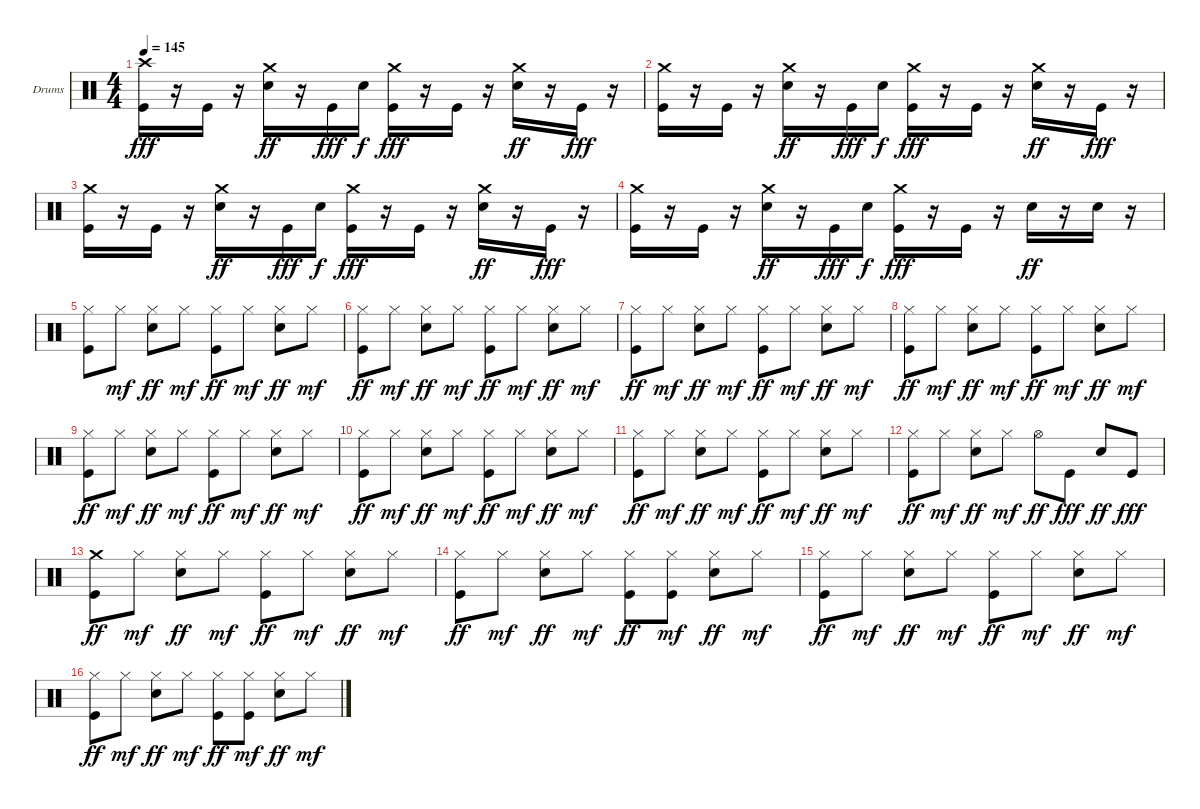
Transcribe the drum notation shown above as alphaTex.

\defaultSystemsLayout 4
\bracketExtendMode groupsimilarinstruments
\firstSystemTrackNameOrientation horizontal
\otherSystemsTrackNameOrientation horizontal
\track ("Drumkit" "Drums") {instrument percussion}
\staff {score}
\articulation defaults
\ts (4 4)
\tempo 145
\clef neutral
\scale
0.333333
\ks c
("Kick (hit)" "Crash high (hit)").16{dy fff} r.16 "Kick (hit)".16 r.16 ("Snare (hit) 2" "Crash medium (hit)").16{dy ff} r.16 "Kick (hit)".16{dy fff} "Snare (hit) 2".16{dy f} ("Kick (hit)" "Crash medium (hit)").16{dy fff} r.16 "Kick (hit)".16 r.16 ("Snare (hit) 2" "Crash medium (hit)").16{dy ff} r.16 "Kick (hit)".16{dy fff} r.16 |
\scale
0.333333 ("Kick (hit)" "Crash medium (hit)").16 r.16 "Kick (hit)".16 r.16 ("Snare (hit) 2" "Crash medium (hit)").16{dy ff} r.16 "Kick (hit)".16{dy fff} "Snare (hit) 2".16{dy f} ("Kick (hit)" "Crash medium (hit)").16{dy fff} r.16 "Kick (hit)".16 r.16 ("Snare (hit) 2" "Crash medium (hit)").16{dy ff} r.16 "Kick (hit)".16{dy fff} r.16 |
\scale
0.333333 ("Kick (hit)" "Crash medium (hit)").16 r.16 "Kick (hit)".16 r.16 ("Snare (hit) 2" "Crash medium (hit)").16{dy ff} r.16 "Kick (hit)".16{dy fff} "Snare (hit) 2".16{dy f} ("Kick (hit)" "Crash medium (hit)").16{dy fff} r.16 "Kick (hit)".16 r.16 ("Snare (hit) 2" "Crash medium (hit)").16{dy ff} r.16 "Kick (hit)".16{dy fff} r.16 |
\scale
0.333333 ("Kick (hit)" "Crash medium (hit)").16 r.16 "Kick (hit)".16 r.16 ("Snare (hit) 2" "Crash medium (hit)").16{dy ff} r.16 "Kick (hit)".16{dy fff} "Snare (hit) 2".16{dy f} ("Kick (hit)" "Crash medium (hit)").16{dy fff} r.16 "Kick (hit)".16 r.16 "Snare (hit) 2".16{dy ff} r.16 "Snare (hit) 2".16 r.16 |
\scale
0.333333 ("Hi-Hat (closed)" "Kick (hit)").8 "Hi-Hat (closed)".8{dy mf} ("Hi-Hat (closed)" "Snare (hit) 2").8{dy ff} "Hi-Hat (closed)".8{dy mf} ("Hi-Hat (closed)" "Kick (hit)").8{dy ff} "Hi-Hat (closed)".8{dy mf} ("Hi-Hat (closed)" "Snare (hit) 2").8{dy ff} "Hi-Hat (closed)".8{dy mf} |
\scale
0.333333 ("Hi-Hat (closed)" "Kick (hit)").8{dy ff} "Hi-Hat (closed)".8{dy mf} ("Hi-Hat (closed)" "Snare (hit) 2").8{dy ff} "Hi-Hat (closed)".8{dy mf} ("Hi-Hat (closed)" "Kick (hit)").8{dy ff} "Hi-Hat (closed)".8{dy mf} ("Hi-Hat (closed)" "Snare (hit) 2").8{dy ff} "Hi-Hat (closed)".8{dy mf} |
\scale
0.333333 ("Hi-Hat (closed)" "Kick (hit)").8{dy ff} "Hi-Hat (closed)".8{dy mf} ("Hi-Hat (closed)" "Snare (hit) 2").8{dy ff} "Hi-Hat (closed)".8{dy mf} ("Hi-Hat (closed)" "Kick (hit)").8{dy ff} "Hi-Hat (closed)".8{dy mf} ("Hi-Hat (closed)" "Snare (hit) 2").8{dy ff} "Hi-Hat (closed)".8{dy mf} |
\scale
0.333333 ("Hi-Hat (closed)" "Kick (hit)").8{dy ff} "Hi-Hat (closed)".8{dy mf} ("Hi-Hat (closed)" "Snare (hit) 2").8{dy ff} "Hi-Hat (closed)".8{dy mf} ("Hi-Hat (closed)" "Kick (hit)").8{dy ff} "Hi-Hat (closed)".8{dy mf} ("Hi-Hat (closed)" "Snare (hit) 2").8{dy ff} "Hi-Hat (closed)".8{dy mf} |
\scale
0.333333 ("Hi-Hat (closed)" "Kick (hit)").8{dy ff} "Hi-Hat (closed)".8{dy mf} ("Hi-Hat (closed)" "Snare (hit) 2").8{dy ff} "Hi-Hat (closed)".8{dy mf} ("Hi-Hat (closed)" "Kick (hit)").8{dy ff} "Hi-Hat (closed)".8{dy mf} ("Hi-Hat (closed)" "Snare (hit) 2").8{dy ff} "Hi-Hat (closed)".8{dy mf} |
\scale
0.333333 ("Hi-Hat (closed)" "Kick (hit)").8{dy ff} "Hi-Hat (closed)".8{dy mf} ("Hi-Hat (closed)" "Snare (hit) 2").8{dy ff} "Hi-Hat (closed)".8{dy mf} ("Hi-Hat (closed)" "Kick (hit)").8{dy ff} "Hi-Hat (closed)".8{dy mf} ("Hi-Hat (closed)" "Snare (hit) 2").8{dy ff} "Hi-Hat (closed)".8{dy mf} |
\scale
0.333333 ("Hi-Hat (closed)" "Kick (hit)").8{dy ff} "Hi-Hat (closed)".8{dy mf} ("Hi-Hat (closed)" "Snare (hit) 2").8{dy ff} "Hi-Hat (closed)".8{dy mf} ("Hi-Hat (closed)" "Kick (hit)").8{dy ff} "Hi-Hat (closed)".8{dy mf} ("Hi-Hat (closed)" "Snare (hit) 2").8{dy ff} "Hi-Hat (closed)".8{dy mf} |
\scale
0.333333 ("Hi-Hat (closed)" "Kick (hit)").8{dy ff} "Hi-Hat (closed)".8{dy mf} ("Hi-Hat (closed)" "Snare (hit) 2").8{dy ff} "Hi-Hat (closed)".8{dy mf} "Hi-Hat (open)".8{dy ff} "Kick (hit)".8{dy fff} "Snare (hit) 2".8{dy ff} "Kick (hit)".8{dy fff} |
\scale
0.333333 ("Crash medium (hit)" "Kick (hit)").8{dy ff} "Hi-Hat (closed)".8{dy mf} ("Hi-Hat (closed)" "Snare (hit) 2").8{dy ff} "Hi-Hat (closed)".8{dy mf} ("Hi-Hat (closed)" "Kick (hit)").8{dy ff} "Hi-Hat (closed)".8{dy mf} ("Hi-Hat (closed)" "Snare (hit) 2").8{dy ff} "Hi-Hat (closed)".8{dy mf} |
\scale
0.333333 ("Hi-Hat (closed)" "Kick (hit)").8{dy ff} "Hi-Hat (closed)".8{dy mf} ("Hi-Hat (closed)" "Snare (hit) 2").8{dy ff} "Hi-Hat (closed)".8{dy mf} ("Hi-Hat (closed)" "Kick (hit)").8{dy ff} ("Hi-Hat (closed)" "Kick (hit)").8{dy mf} ("Hi-Hat (closed)" "Snare (hit) 2").8{dy ff} "Hi-Hat (closed)".8{dy mf} |
\scale
0.333333 ("Hi-Hat (closed)" "Kick (hit)").8{dy ff} "Hi-Hat (closed)".8{dy mf} ("Hi-Hat (closed)" "Snare (hit) 2").8{dy ff} "Hi-Hat (closed)".8{dy mf} ("Hi-Hat (closed)" "Kick (hit)").8{dy ff} "Hi-Hat (closed)".8{dy mf} ("Hi-Hat (closed)" "Snare (hit) 2").8{dy ff} "Hi-Hat (closed)".8{dy mf} |
\scale
0.333333 ("Hi-Hat (closed)" "Kick (hit)").8{dy ff} "Hi-Hat (closed)".8{dy mf} ("Hi-Hat (closed)" "Snare (hit) 2").8{dy ff} "Hi-Hat (closed)".8{dy mf} ("Hi-Hat (closed)" "Kick (hit)").8{dy ff} ("Hi-Hat (closed)" "Kick (hit)").8{dy mf} ("Hi-Hat (closed)" "Snare (hit) 2").8{dy ff} "Hi-Hat (closed)".8{dy mf}
